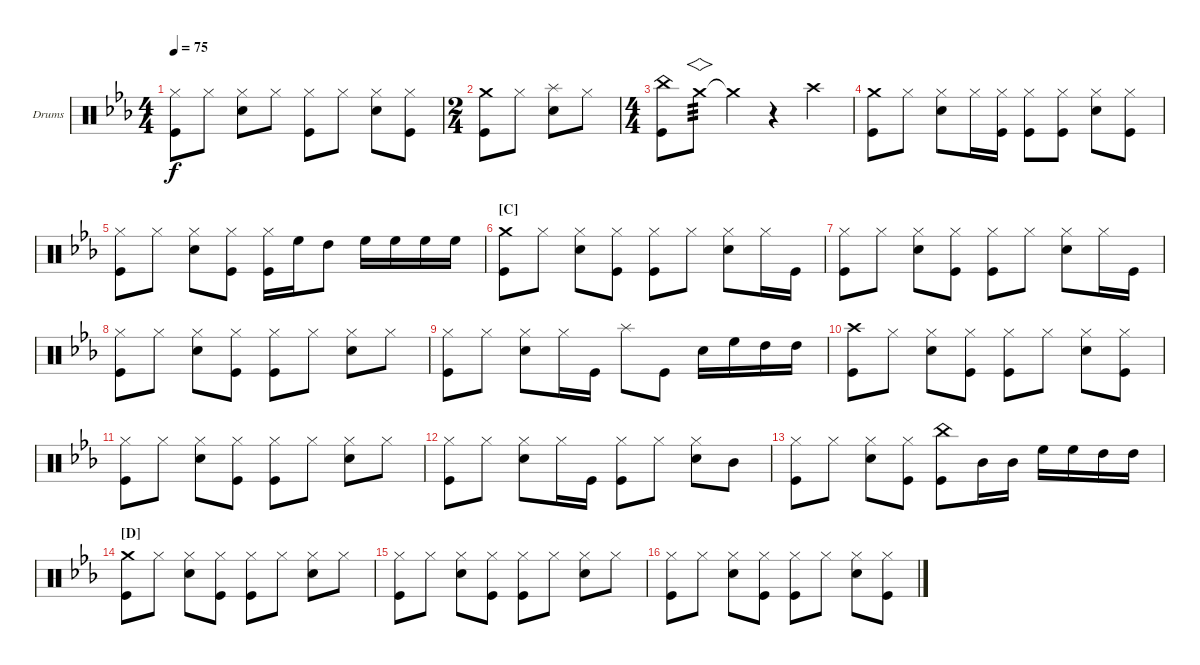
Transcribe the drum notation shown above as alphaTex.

\bracketExtendMode groupsimilarinstruments
\firstSystemTrackNameOrientation horizontal
\otherSystemsTrackNameOrientation horizontal
\track ("Drumkit" "Drums") {instrument percussion}
\staff {score}
\articulation defaults
\ts (4 4)
\tempo 75
\clef neutral
\scale
0.262911
\ks eb
("Kick (hit)" "Hi-Hat (closed)").8{dy f} "Hi-Hat (closed)".8 ("Snare (hit) 2" "Hi-Hat (closed)").8 "Hi-Hat (closed)".8 ("Kick (hit)" "Hi-Hat (closed)").8 "Hi-Hat (closed)".8 ("Snare (hit) 2" "Hi-Hat (closed)").8 ("Kick (hit)" "Hi-Hat (closed)").8 |
\ts (2 4)
\scale
0.474178 ("Kick (hit)" "Crash medium (hit)").8 "Hi-Hat (closed)".8 ("Snare (hit) 2" "Splash (hit)").8 "Hi-Hat (closed)".8 |
\ts (4 4)
\scale
0.474178 ("Kick (hit)" "China (hit)").8 "Crash medium (hit)".8{vs tp 3} "Crash medium (hit)"{t}.4 r.4 "Crash high (hit)".4 |
\scale
0.262911 ("Kick (hit)" "Crash medium (hit)").8 "Hi-Hat (closed)".8 ("Snare (hit) 2" "Hi-Hat (closed)").8 "Hi-Hat (closed)".16 ("Kick (hit)" "Hi-Hat (closed)").16 ("Kick (hit)" "Hi-Hat (closed)").8 ("Kick (hit)" "Hi-Hat (closed)").8 ("Snare (hit) 2" "Hi-Hat (closed)").8 ("Kick (hit)" "Hi-Hat (closed)").8 |
\scale
0.262911 ("Kick (hit)" "Hi-Hat (closed)").8 "Hi-Hat (closed)".8 ("Snare (hit) 2" "Hi-Hat (closed)").8 ("Kick (hit)" "Hi-Hat (closed)").8 ("Kick (hit)" "Hi-Hat (closed)").16 "High Floor Tom (hit)".16 "High Tom (hit)".8 "High Floor Tom (hit)".16 "High Floor Tom (hit)".16 "High Floor Tom (hit)".16 "High Floor Tom (hit)".16 |
\section ("C" "")
\scale
0.333333 ("Kick (hit)" "Crash medium (hit)").8 "Hi-Hat (closed)".8 ("Hi-Hat (closed)" "Snare (hit) 2").8 ("Kick (hit)" "Hi-Hat (closed)").8 ("Kick (hit)" "Hi-Hat (closed)").8 "Hi-Hat (closed)".8 ("Hi-Hat (closed)" "Snare (hit) 2").8 "Hi-Hat (closed)".16 "Kick (hit)".16 |
\scale
0.333333 ("Kick (hit)" "Hi-Hat (closed)").8 "Hi-Hat (closed)".8 ("Hi-Hat (closed)" "Snare (hit) 2").8 ("Kick (hit)" "Hi-Hat (closed)").8 ("Kick (hit)" "Hi-Hat (closed)").8 "Hi-Hat (closed)".8 ("Hi-Hat (closed)" "Snare (hit) 2").8 "Hi-Hat (closed)".16 "Kick (hit)".16 |
\scale
0.333333 ("Kick (hit)" "Hi-Hat (closed)").8 "Hi-Hat (closed)".8 ("Snare (hit) 2" "Hi-Hat (closed)").8 ("Kick (hit)" "Hi-Hat (closed)").8 ("Kick (hit)" "Hi-Hat (closed)").8 "Hi-Hat (closed)".8 ("Hi-Hat (closed)" "Snare (hit) 2").8 "Hi-Hat (closed)".8 |
\scale
0.333333 ("Kick (hit)" "Hi-Hat (closed)").8 "Hi-Hat (closed)".8 ("Hi-Hat (closed)" "Snare (hit) 2").8 "Hi-Hat (closed)".16 "Kick (hit)".16 "Splash (hit)".8 "Kick (hit)".8 "Snare (hit) 2".16 "High Floor Tom (hit)".16 "High Tom (hit)".16 "High Tom (hit)".16 |
\scale
0.333333 ("Kick (hit)" "Crash high (hit)").8 "Hi-Hat (closed)".8 ("Hi-Hat (closed)" "Snare (hit) 2").8 ("Kick (hit)" "Hi-Hat (closed)").8 ("Kick (hit)" "Hi-Hat (closed)").8 "Hi-Hat (closed)".8 ("Hi-Hat (closed)" "Snare (hit) 2").8 ("Kick (hit)" "Hi-Hat (closed)").8 |
\scale
0.333333 ("Kick (hit)" "Hi-Hat (closed)").8 "Hi-Hat (closed)".8 ("Hi-Hat (closed)" "Snare (hit) 2").8 ("Kick (hit)" "Hi-Hat (closed)").8 ("Kick (hit)" "Hi-Hat (closed)").8 "Hi-Hat (closed)".8 ("Hi-Hat (closed)" "Snare (hit) 2").8 "Hi-Hat (closed)".8 |
\scale
0.333333 ("Kick (hit)" "Hi-Hat (closed)").8 "Hi-Hat (closed)".8 ("Snare (hit) 2" "Hi-Hat (closed)").8 "Hi-Hat (closed)".16 "Kick (hit)".16 ("Kick (hit)" "Hi-Hat (closed)").8 "Hi-Hat (closed)".8 ("Snare (hit) 2" "Hi-Hat (closed)").8 "Mid Tom (hit)".8 |
\scale
0.333333 ("Kick (hit)" "Hi-Hat (closed)").8 "Hi-Hat (closed)".8 ("Snare (hit) 2" "Hi-Hat (closed)").8 ("Kick (hit)" "Hi-Hat (closed)").8 ("Kick (hit)" "China (hit)").8 "Mid Tom (hit)".16 "Mid Tom (hit)".16 "High Floor Tom (hit)".16 "High Floor Tom (hit)".16 "High Tom (hit)".16 "High Tom (hit)".16 |
\section ("D" "")
\scale
0.333333 ("Kick (hit)" "Crash medium (hit)").8 "Hi-Hat (closed)".8 ("Snare (hit) 2" "Hi-Hat (closed)").8 ("Kick (hit)" "Hi-Hat (closed)").8 ("Kick (hit)" "Hi-Hat (closed)").8 "Hi-Hat (closed)".8 ("Snare (hit) 2" "Hi-Hat (closed)").8 "Hi-Hat (closed)".8 |
\scale
0.333333 ("Kick (hit)" "Hi-Hat (closed)").8 "Hi-Hat (closed)".8 ("Hi-Hat (closed)" "Snare (hit) 2").8 ("Kick (hit)" "Hi-Hat (closed)").8 ("Kick (hit)" "Hi-Hat (closed)").8 "Hi-Hat (closed)".8 ("Snare (hit) 2" "Hi-Hat (closed)").8 "Hi-Hat (closed)".8 |
\scale
0.333333 ("Kick (hit)" "Hi-Hat (closed)").8 "Hi-Hat (closed)".8 ("Hi-Hat (closed)" "Snare (hit) 2").8 ("Kick (hit)" "Hi-Hat (closed)").8 ("Kick (hit)" "Hi-Hat (closed)").8 "Hi-Hat (closed)".8 ("Hi-Hat (closed)" "Snare (hit) 2").8 ("Kick (hit)" "Hi-Hat (closed)").8
